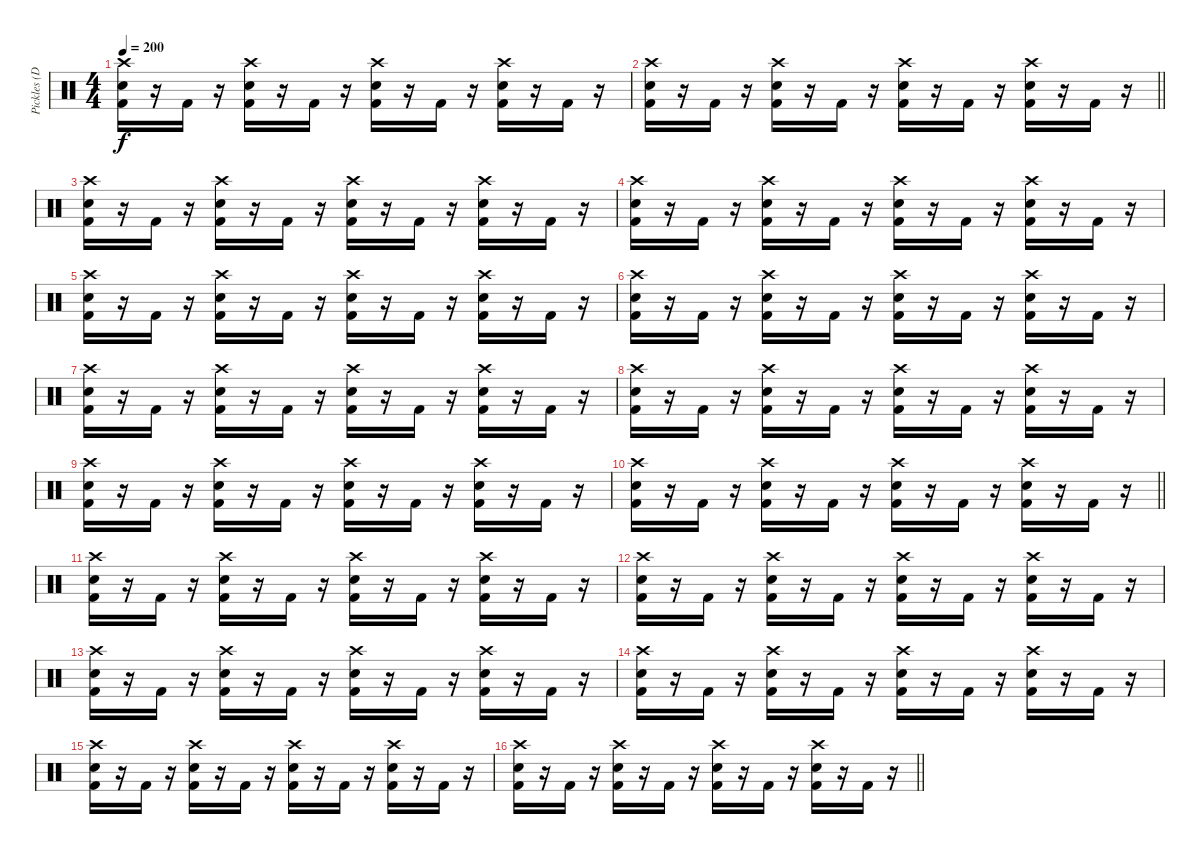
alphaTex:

\track ("Pickles (Drums)" "Pickles (D") {instrument percussion}
\staff {score}
\articulation defaults
\ts (4 4)
\tempo 200
\clef neutral
\ks c
("Crash high (hit)" "Electric Snare (hit)" "Kick (hit) 2").16{dy f} r.16 "Kick (hit) 2".16 r.16 ("Crash high (hit)" "Electric Snare (hit)" "Kick (hit) 2").16 r.16 "Kick (hit) 2".16 r.16 ("Crash high (hit)" "Electric Snare (hit)" "Kick (hit) 2").16 r.16 "Kick (hit) 2".16 r.16 ("Crash high (hit)" "Electric Snare (hit)" "Kick (hit) 2").16 r.16 "Kick (hit) 2".16 r.16 |
\barLineRight lightlight
("Crash high (hit)" "Electric Snare (hit)" "Kick (hit) 2").16 r.16 "Kick (hit) 2".16 r.16 ("Crash high (hit)" "Electric Snare (hit)" "Kick (hit) 2").16 r.16 "Kick (hit) 2".16 r.16 ("Crash high (hit)" "Electric Snare (hit)" "Kick (hit) 2").16 r.16 "Kick (hit) 2".16 r.16 ("Crash high (hit)" "Electric Snare (hit)" "Kick (hit) 2").16 r.16 "Kick (hit) 2".16 r.16 |
("Crash high (hit)" "Electric Snare (hit)" "Kick (hit) 2").16 r.16 "Kick (hit) 2".16 r.16 ("Crash high (hit)" "Electric Snare (hit)" "Kick (hit) 2").16 r.16 "Kick (hit) 2".16 r.16 ("Crash high (hit)" "Electric Snare (hit)" "Kick (hit) 2").16 r.16 "Kick (hit) 2".16 r.16 ("Crash high (hit)" "Electric Snare (hit)" "Kick (hit) 2").16 r.16 "Kick (hit) 2".16 r.16 |
("Crash high (hit)" "Electric Snare (hit)" "Kick (hit) 2").16 r.16 "Kick (hit) 2".16 r.16 ("Crash high (hit)" "Electric Snare (hit)" "Kick (hit) 2").16 r.16 "Kick (hit) 2".16 r.16 ("Crash high (hit)" "Electric Snare (hit)" "Kick (hit) 2").16 r.16 "Kick (hit) 2".16 r.16 ("Crash high (hit)" "Electric Snare (hit)" "Kick (hit) 2").16 r.16 "Kick (hit) 2".16 r.16 |
("Crash high (hit)" "Electric Snare (hit)" "Kick (hit) 2").16 r.16 "Kick (hit) 2".16 r.16 ("Crash high (hit)" "Electric Snare (hit)" "Kick (hit) 2").16 r.16 "Kick (hit) 2".16 r.16 ("Crash high (hit)" "Electric Snare (hit)" "Kick (hit) 2").16 r.16 "Kick (hit) 2".16 r.16 ("Crash high (hit)" "Electric Snare (hit)" "Kick (hit) 2").16 r.16 "Kick (hit) 2".16 r.16 |
("Crash high (hit)" "Electric Snare (hit)" "Kick (hit) 2").16 r.16 "Kick (hit) 2".16 r.16 ("Crash high (hit)" "Electric Snare (hit)" "Kick (hit) 2").16 r.16 "Kick (hit) 2".16 r.16 ("Crash high (hit)" "Electric Snare (hit)" "Kick (hit) 2").16 r.16 "Kick (hit) 2".16 r.16 ("Crash high (hit)" "Electric Snare (hit)" "Kick (hit) 2").16 r.16 "Kick (hit) 2".16 r.16 |
("Crash high (hit)" "Electric Snare (hit)" "Kick (hit) 2").16 r.16 "Kick (hit) 2".16 r.16 ("Crash high (hit)" "Electric Snare (hit)" "Kick (hit) 2").16 r.16 "Kick (hit) 2".16 r.16 ("Crash high (hit)" "Electric Snare (hit)" "Kick (hit) 2").16 r.16 "Kick (hit) 2".16 r.16 ("Crash high (hit)" "Electric Snare (hit)" "Kick (hit) 2").16 r.16 "Kick (hit) 2".16 r.16 |
("Crash high (hit)" "Electric Snare (hit)" "Kick (hit) 2").16 r.16 "Kick (hit) 2".16 r.16 ("Crash high (hit)" "Electric Snare (hit)" "Kick (hit) 2").16 r.16 "Kick (hit) 2".16 r.16 ("Crash high (hit)" "Electric Snare (hit)" "Kick (hit) 2").16 r.16 "Kick (hit) 2".16 r.16 ("Crash high (hit)" "Electric Snare (hit)" "Kick (hit) 2").16 r.16 "Kick (hit) 2".16 r.16 |
("Crash high (hit)" "Electric Snare (hit)" "Kick (hit) 2").16 r.16 "Kick (hit) 2".16 r.16 ("Crash high (hit)" "Electric Snare (hit)" "Kick (hit) 2").16 r.16 "Kick (hit) 2".16 r.16 ("Crash high (hit)" "Electric Snare (hit)" "Kick (hit) 2").16 r.16 "Kick (hit) 2".16 r.16 ("Crash high (hit)" "Electric Snare (hit)" "Kick (hit) 2").16 r.16 "Kick (hit) 2".16 r.16 |
\barLineRight lightlight
("Crash high (hit)" "Electric Snare (hit)" "Kick (hit) 2").16 r.16 "Kick (hit) 2".16 r.16 ("Crash high (hit)" "Electric Snare (hit)" "Kick (hit) 2").16 r.16 "Kick (hit) 2".16 r.16 ("Crash high (hit)" "Electric Snare (hit)" "Kick (hit) 2").16 r.16 "Kick (hit) 2".16 r.16 ("Crash high (hit)" "Electric Snare (hit)" "Kick (hit) 2").16 r.16 "Kick (hit) 2".16 r.16 |
("Crash high (hit)" "Electric Snare (hit)" "Kick (hit) 2").16 r.16 "Kick (hit) 2".16 r.16 ("Crash high (hit)" "Electric Snare (hit)" "Kick (hit) 2").16 r.16 "Kick (hit) 2".16 r.16 ("Crash high (hit)" "Electric Snare (hit)" "Kick (hit) 2").16 r.16 "Kick (hit) 2".16 r.16 ("Crash high (hit)" "Electric Snare (hit)" "Kick (hit) 2").16 r.16 "Kick (hit) 2".16 r.16 |
("Crash high (hit)" "Electric Snare (hit)" "Kick (hit) 2").16 r.16 "Kick (hit) 2".16 r.16 ("Crash high (hit)" "Electric Snare (hit)" "Kick (hit) 2").16 r.16 "Kick (hit) 2".16 r.16 ("Crash high (hit)" "Electric Snare (hit)" "Kick (hit) 2").16 r.16 "Kick (hit) 2".16 r.16 ("Crash high (hit)" "Electric Snare (hit)" "Kick (hit) 2").16 r.16 "Kick (hit) 2".16 r.16 |
("Crash high (hit)" "Electric Snare (hit)" "Kick (hit) 2").16 r.16 "Kick (hit) 2".16 r.16 ("Crash high (hit)" "Electric Snare (hit)" "Kick (hit) 2").16 r.16 "Kick (hit) 2".16 r.16 ("Crash high (hit)" "Electric Snare (hit)" "Kick (hit) 2").16 r.16 "Kick (hit) 2".16 r.16 ("Crash high (hit)" "Electric Snare (hit)" "Kick (hit) 2").16 r.16 "Kick (hit) 2".16 r.16 |
("Crash high (hit)" "Electric Snare (hit)" "Kick (hit) 2").16 r.16 "Kick (hit) 2".16 r.16 ("Crash high (hit)" "Electric Snare (hit)" "Kick (hit) 2").16 r.16 "Kick (hit) 2".16 r.16 ("Crash high (hit)" "Electric Snare (hit)" "Kick (hit) 2").16 r.16 "Kick (hit) 2".16 r.16 ("Crash high (hit)" "Electric Snare (hit)" "Kick (hit) 2").16 r.16 "Kick (hit) 2".16 r.16 |
("Crash high (hit)" "Electric Snare (hit)" "Kick (hit) 2").16 r.16 "Kick (hit) 2".16 r.16 ("Crash high (hit)" "Electric Snare (hit)" "Kick (hit) 2").16 r.16 "Kick (hit) 2".16 r.16 ("Crash high (hit)" "Electric Snare (hit)" "Kick (hit) 2").16 r.16 "Kick (hit) 2".16 r.16 ("Crash high (hit)" "Electric Snare (hit)" "Kick (hit) 2").16 r.16 "Kick (hit) 2".16 r.16 |
\barLineRight lightlight
("Crash high (hit)" "Electric Snare (hit)" "Kick (hit) 2").16 r.16 "Kick (hit) 2".16 r.16 ("Crash high (hit)" "Electric Snare (hit)" "Kick (hit) 2").16 r.16 "Kick (hit) 2".16 r.16 ("Crash high (hit)" "Electric Snare (hit)" "Kick (hit) 2").16 r.16 "Kick (hit) 2".16 r.16 ("Crash high (hit)" "Electric Snare (hit)" "Kick (hit) 2").16 r.16 "Kick (hit) 2".16 r.16
